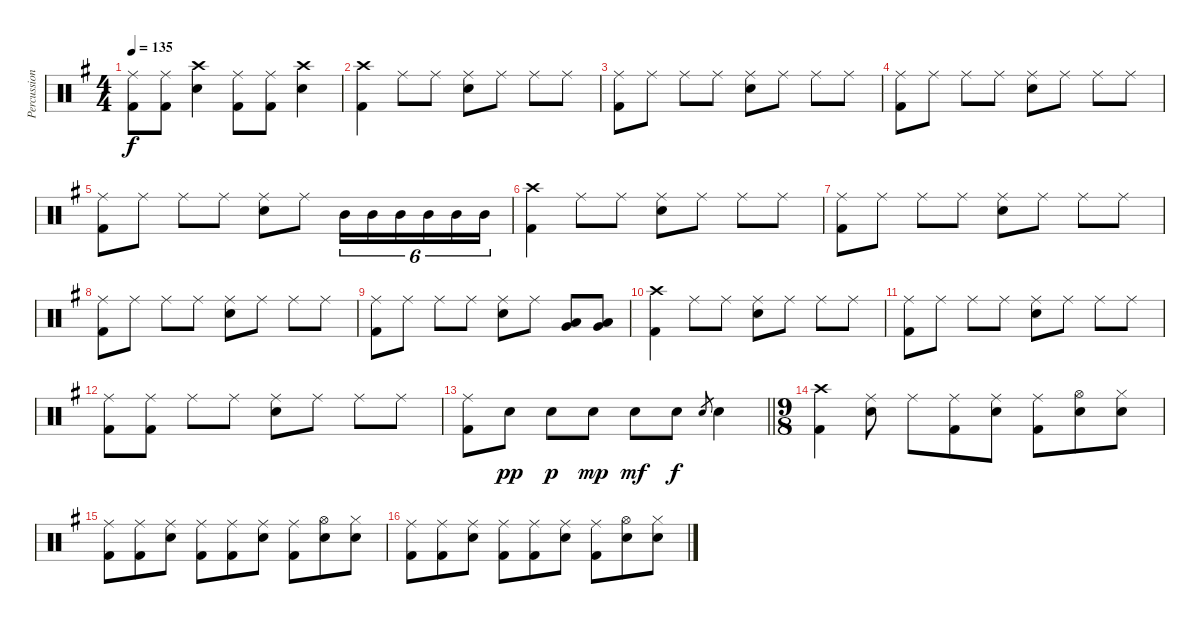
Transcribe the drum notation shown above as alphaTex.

\track ("Percussion" "Percussion") {instrument percussion}
\staff {score}
\articulation defaults
\ts (4 4)
\tempo 135
\clef neutral
\ks eminor
("Ride (middle)" "Kick (hit) 2").8{dy f} ("Ride (middle)" "Kick (hit) 2").8 ("Crash high (hit)" "Snare (hit) 2").4 ("Ride (middle)" "Kick (hit) 2").8 ("Ride (middle)" "Kick (hit) 2").8 ("Crash high (hit)" "Snare (hit) 2").4 |
("Crash high (hit)" "Kick (hit) 2").4 "Ride (middle)".8 "Ride (middle)".8 ("Ride (middle)" "Snare (hit) 2").8 "Ride (middle)".8 "Ride (middle)".8 "Ride (middle)".8 |
("Ride (middle)" "Kick (hit) 2").8 "Ride (middle)".8 "Ride (middle)".8 "Ride (middle)".8 ("Ride (middle)" "Snare (hit) 2").8 "Ride (middle)".8 "Ride (middle)".8 "Ride (middle)".8 |
("Ride (middle)" "Kick (hit) 2").8 "Ride (middle)".8 "Ride (middle)".8 "Ride (middle)".8 ("Ride (middle)" "Snare (hit) 2").8 "Ride (middle)".8 "Ride (middle)".8 "Ride (middle)".8 |
("Ride (middle)" "Kick (hit) 2").8 "Ride (middle)".8 "Ride (middle)".8 "Ride (middle)".8 ("Ride (middle)" "Snare (hit) 2").8 "Ride (middle)".8 "Mid Tom (hit)".16{tu (6 4)} "Mid Tom (hit)".16{tu (6 4)} "Mid Tom (hit)".16{tu (6 4)} "Mid Tom (hit)".16{tu (6 4)} "Mid Tom (hit)".16{tu (6 4)} "Mid Tom (hit)".16{tu (6 4)} |
("Crash high (hit)" "Kick (hit) 2").4 "Ride (middle)".8 "Ride (middle)".8 ("Ride (middle)" "Snare (hit) 2").8 "Ride (middle)".8 "Ride (middle)".8 "Ride (middle)".8 |
("Ride (middle)" "Kick (hit) 2").8 "Ride (middle)".8 "Ride (middle)".8 "Ride (middle)".8 ("Ride (middle)" "Snare (hit) 2").8 "Ride (middle)".8 "Ride (middle)".8 "Ride (middle)".8 |
("Ride (middle)" "Kick (hit) 2").8 "Ride (middle)".8 "Ride (middle)".8 "Ride (middle)".8 ("Ride (middle)" "Snare (hit) 2").8 "Ride (middle)".8 "Ride (middle)".8 "Ride (middle)".8 |
("Ride (middle)" "Kick (hit) 2").8 "Ride (middle)".8 "Ride (middle)".8 "Ride (middle)".8 ("Ride (middle)" "Snare (hit) 2").8 "Ride (middle)".8 ("Low Tom (hit)" "Very Low Tom (hit)").8 ("Very Low Tom (hit)" "Low Floor Tom (hit)").8 |
("Crash high (hit)" "Kick (hit) 2").4 "Ride (middle)".8 "Ride (middle)".8 ("Ride (middle)" "Snare (hit) 2").8 "Ride (middle)".8 "Ride (middle)".8 "Ride (middle)".8 |
("Ride (middle)" "Kick (hit) 2").8 "Ride (middle)".8 "Ride (middle)".8 "Ride (middle)".8 ("Ride (middle)" "Snare (hit) 2").8 "Ride (middle)".8 "Ride (middle)".8 "Ride (middle)".8 |
("Ride (middle)" "Kick (hit) 2").8 ("Ride (middle)" "Kick (hit) 2").8 "Ride (middle)".8 "Ride (middle)".8 ("Ride (middle)" "Snare (hit) 2").8 "Ride (middle)".8 "Ride (middle)".8 "Ride (middle)".8 |
\barLineRight lightlight
("Ride (middle)" "Kick (hit) 2").8 "Snare (hit) 2".8{dy pp} "Snare (hit) 2".8{dy p} "Snare (hit) 2".8{dy mp} "Snare (hit) 2".8{dy mf} "Snare (hit) 2".8{dy f} "Snare (hit) 2".8{gr} "Snare (hit) 2".4 |
\ts (9 8)
("Crash high (hit)" "Kick (hit) 2").4 ("Ride (middle)" "Snare (hit) 2").8 "Ride (middle)".8 ("Ride (middle)" "Kick (hit) 2").8 ("Ride (middle)" "Snare (hit) 2").8 ("Ride (middle)" "Kick (hit) 2").8 ("Hi-Hat (open)" "Snare (hit) 2").8 ("Hi-Hat (closed)" "Snare (hit) 2").8 |
("Ride (middle)" "Kick (hit) 2").8 ("Ride (middle)" "Kick (hit) 2").8 ("Ride (middle)" "Snare (hit) 2").8 ("Ride (middle)" "Kick (hit) 2").8 ("Ride (middle)" "Kick (hit) 2").8 ("Ride (middle)" "Snare (hit) 2").8 ("Ride (middle)" "Kick (hit) 2").8 ("Hi-Hat (open)" "Snare (hit) 2").8 ("Hi-Hat (closed)" "Snare (hit) 2").8 |
("Ride (middle)" "Kick (hit) 2").8 ("Ride (middle)" "Kick (hit) 2").8 ("Ride (middle)" "Snare (hit) 2").8 ("Ride (middle)" "Kick (hit) 2").8 ("Ride (middle)" "Kick (hit) 2").8 ("Ride (middle)" "Snare (hit) 2").8 ("Ride (middle)" "Kick (hit) 2").8 ("Hi-Hat (open)" "Snare (hit) 2").8 ("Hi-Hat (closed)" "Snare (hit) 2").8
